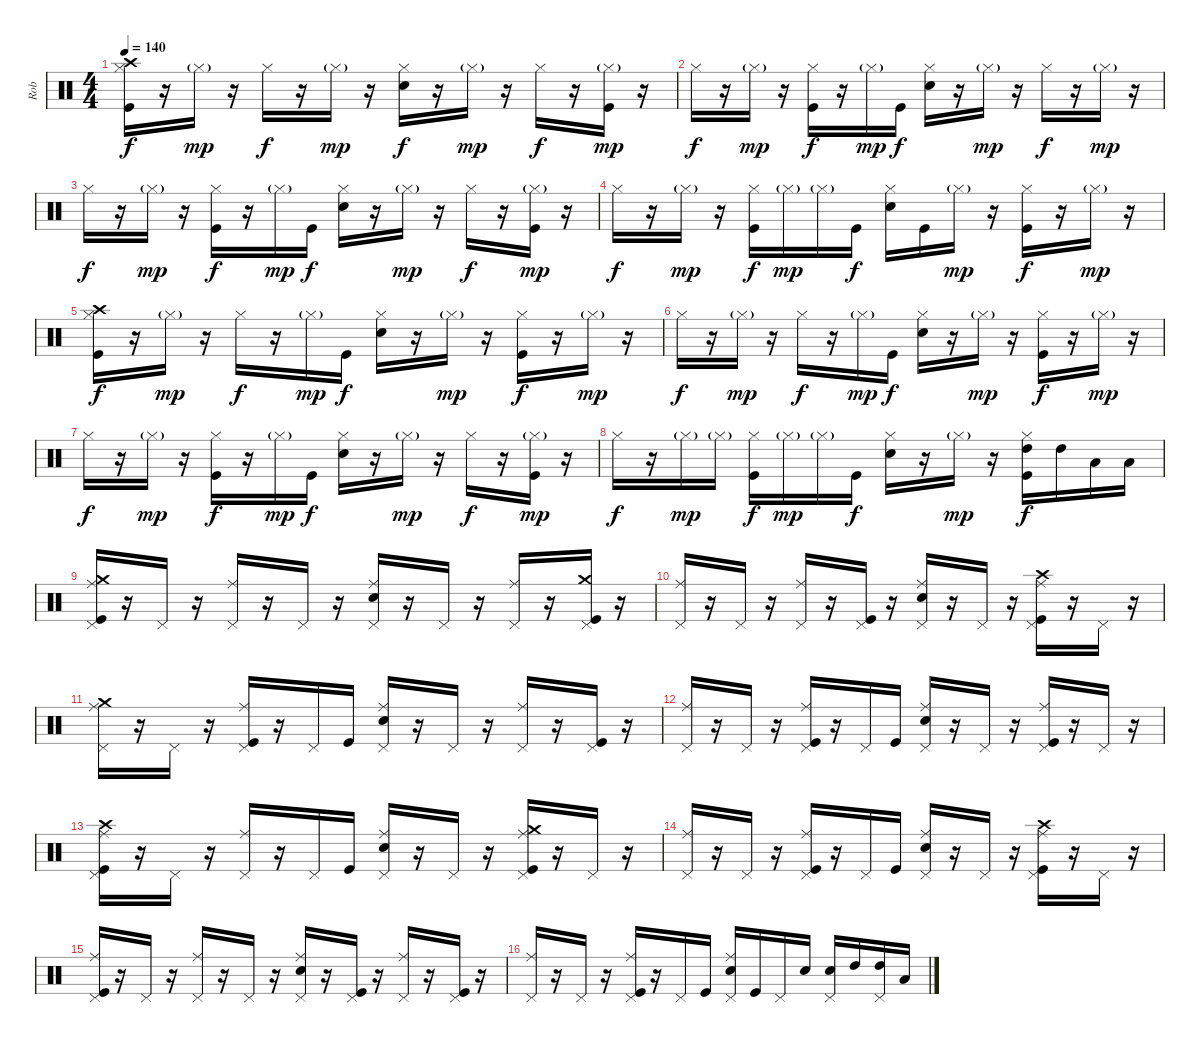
\track ("Rob" "Rob") {instrument percussion}
\staff {score}
\articulation defaults
\ts (4 4)
\tempo 140
\clef neutral
\ks c
("Crash high (hit)" "Hi-Hat (closed)" "Kick (hit)").16{dy f} r.16 "Hi-Hat (closed)"{g}.16{dy mp} r.16 "Hi-Hat (closed)".16{dy f} r.16 "Hi-Hat (closed)"{g}.16{dy mp} r.16 ("Electric Snare (hit)" "Hi-Hat (closed)").16{dy f} r.16 "Hi-Hat (closed)"{g}.16{dy mp} r.16 "Hi-Hat (closed)".16{dy f} r.16 ("Hi-Hat (closed)"{g} "Kick (hit)").16{dy mp} r.16 |
"Hi-Hat (closed)".16{dy f} r.16 "Hi-Hat (closed)"{g}.16{dy mp} r.16 ("Hi-Hat (closed)" "Kick (hit)").16{dy f} r.16 "Hi-Hat (closed)"{g}.16{dy mp} "Kick (hit)".16{dy f} ("Electric Snare (hit)" "Hi-Hat (closed)").16 r.16 "Hi-Hat (closed)"{g}.16{dy mp} r.16 "Hi-Hat (closed)".16{dy f} r.16 "Hi-Hat (closed)"{g}.16{dy mp} r.16 |
"Hi-Hat (closed)".16{dy f} r.16 "Hi-Hat (closed)"{g}.16{dy mp} r.16 ("Hi-Hat (closed)" "Kick (hit)").16{dy f} r.16 "Hi-Hat (closed)"{g}.16{dy mp} "Kick (hit)".16{dy f} ("Electric Snare (hit)" "Hi-Hat (closed)").16 r.16 "Hi-Hat (closed)"{g}.16{dy mp} r.16 "Hi-Hat (closed)".16{dy f} r.16 ("Hi-Hat (closed)"{g} "Kick (hit)").16{dy mp} r.16 |
"Hi-Hat (closed)".16{dy f} r.16 "Hi-Hat (closed)"{g}.16{dy mp} r.16 ("Hi-Hat (closed)" "Kick (hit)").16{dy f} "Hi-Hat (closed)"{g}.16{dy mp} "Hi-Hat (closed)"{g}.16 "Kick (hit)".16{dy f} ("Electric Snare (hit)" "Hi-Hat (closed)").16 "Kick (hit)".16 "Hi-Hat (closed)"{g}.16{dy mp} r.16 ("Hi-Hat (closed)" "Kick (hit)").16{dy f} r.16 "Hi-Hat (closed)"{g}.16{dy mp} r.16 |
("Crash high (hit)" "Hi-Hat (closed)" "Kick (hit)").16{dy f} r.16 "Hi-Hat (closed)"{g}.16{dy mp} r.16 "Hi-Hat (closed)".16{dy f} r.16 "Hi-Hat (closed)"{g}.16{dy mp} "Kick (hit)".16{dy f} ("Electric Snare (hit)" "Hi-Hat (closed)").16 r.16 "Hi-Hat (closed)"{g}.16{dy mp} r.16 ("Hi-Hat (closed)" "Kick (hit)").16{dy f} r.16 "Hi-Hat (closed)"{g}.16{dy mp} r.16 |
"Hi-Hat (closed)".16{dy f} r.16 "Hi-Hat (closed)"{g}.16{dy mp} r.16 "Hi-Hat (closed)".16{dy f} r.16 "Hi-Hat (closed)"{g}.16{dy mp} "Kick (hit)".16{dy f} ("Electric Snare (hit)" "Hi-Hat (closed)").16 r.16 "Hi-Hat (closed)"{g}.16{dy mp} r.16 ("Hi-Hat (closed)" "Kick (hit)").16{dy f} r.16 "Hi-Hat (closed)"{g}.16{dy mp} r.16 |
"Hi-Hat (closed)".16{dy f} r.16 "Hi-Hat (closed)"{g}.16{dy mp} r.16 ("Hi-Hat (closed)" "Kick (hit)").16{dy f} r.16 "Hi-Hat (closed)"{g}.16{dy mp} "Kick (hit)".16{dy f} ("Electric Snare (hit)" "Hi-Hat (closed)").16 r.16 "Hi-Hat (closed)"{g}.16{dy mp} r.16 "Hi-Hat (closed)".16{dy f} r.16 ("Hi-Hat (closed)"{g} "Kick (hit)").16{dy mp} r.16 |
"Hi-Hat (closed)".16{dy f} r.16 "Hi-Hat (closed)"{g}.16{dy mp} "Hi-Hat (closed)"{g}.16 ("Hi-Hat (closed)" "Kick (hit)").16{dy f} "Hi-Hat (closed)"{g}.16{dy mp} "Hi-Hat (closed)"{g}.16 "Kick (hit)".16{dy f} ("Electric Snare (hit)" "Hi-Hat (closed)").16 r.16 "Hi-Hat (closed)"{g}.16{dy mp} r.16 ("High Tom (hit)" "Hi-Hat (closed)" "Kick (hit)").16{dy f} "High Tom (hit)".16 "Low Tom (hit)".16 "Low Tom (hit)".16 |
("Crash medium (hit)" "Ride (middle)" "Pedal Hi-Hat (hit)" "Kick (hit)").16 r.16 "Pedal Hi-Hat (hit)".16 r.16 ("Ride (middle)" "Pedal Hi-Hat (hit)").16 r.16 "Pedal Hi-Hat (hit)".16 r.16 ("Electric Snare (hit)" "Ride (middle)" "Pedal Hi-Hat (hit)").16 r.16 "Pedal Hi-Hat (hit)".16 r.16 ("Ride (middle)" "Pedal Hi-Hat (hit)").16 r.16 ("Crash medium (hit)" "Pedal Hi-Hat (hit)" "Kick (hit)").16 r.16 |
("Ride (middle)" "Pedal Hi-Hat (hit)").16 r.16 "Pedal Hi-Hat (hit)".16 r.16 ("Ride (middle)" "Pedal Hi-Hat (hit)").16 r.16 ("Pedal Hi-Hat (hit)" "Kick (hit)").16 r.16 ("Electric Snare (hit)" "Ride (middle)" "Pedal Hi-Hat (hit)").16 r.16 "Pedal Hi-Hat (hit)".16 r.16 ("Crash high (hit)" "Ride (middle)" "Pedal Hi-Hat (hit)" "Kick (hit)").16 r.16 "Pedal Hi-Hat (hit)".16 r.16 |
("Crash medium (hit)" "Ride (middle)" "Pedal Hi-Hat (hit)").16 r.16 "Pedal Hi-Hat (hit)".16 r.16 ("Ride (middle)" "Pedal Hi-Hat (hit)" "Kick (hit)").16 r.16 "Pedal Hi-Hat (hit)".16 "Kick (hit)".16 ("Electric Snare (hit)" "Ride (middle)" "Pedal Hi-Hat (hit)").16 r.16 "Pedal Hi-Hat (hit)".16 r.16 ("Ride (middle)" "Pedal Hi-Hat (hit)").16 r.16 ("Pedal Hi-Hat (hit)" "Kick (hit)").16 r.16 |
("Ride (middle)" "Pedal Hi-Hat (hit)").16 r.16 "Pedal Hi-Hat (hit)".16 r.16 ("Ride (middle)" "Pedal Hi-Hat (hit)" "Kick (hit)").16 r.16 "Pedal Hi-Hat (hit)".16 "Kick (hit)".16 ("Electric Snare (hit)" "Ride (middle)" "Pedal Hi-Hat (hit)").16 r.16 "Pedal Hi-Hat (hit)".16 r.16 ("Ride (middle)" "Pedal Hi-Hat (hit)" "Kick (hit)").16 r.16 "Pedal Hi-Hat (hit)".16 r.16 |
("Crash high (hit)" "Ride (middle)" "Pedal Hi-Hat (hit)" "Kick (hit)").16 r.16 "Pedal Hi-Hat (hit)".16 r.16 ("Ride (middle)" "Pedal Hi-Hat (hit)").16 r.16 "Pedal Hi-Hat (hit)".16 "Kick (hit)".16 ("Electric Snare (hit)" "Ride (middle)" "Pedal Hi-Hat (hit)").16 r.16 "Pedal Hi-Hat (hit)".16 r.16 ("Crash medium (hit)" "Ride (middle)" "Pedal Hi-Hat (hit)" "Kick (hit)").16 r.16 "Pedal Hi-Hat (hit)".16 r.16 |
("Ride (middle)" "Pedal Hi-Hat (hit)").16 r.16 "Pedal Hi-Hat (hit)".16 r.16 ("Ride (middle)" "Pedal Hi-Hat (hit)" "Kick (hit)").16 r.16 "Pedal Hi-Hat (hit)".16 "Kick (hit)".16 ("Electric Snare (hit)" "Ride (middle)" "Pedal Hi-Hat (hit)").16 r.16 "Pedal Hi-Hat (hit)".16 r.16 ("Crash high (hit)" "Ride (middle)" "Pedal Hi-Hat (hit)" "Kick (hit)").16 r.16 "Pedal Hi-Hat (hit)".16 r.16 |
("Ride (middle)" "Pedal Hi-Hat (hit)" "Kick (hit)").16 r.16 "Pedal Hi-Hat (hit)".16 r.16 ("Ride (middle)" "Pedal Hi-Hat (hit)").16 r.16 "Pedal Hi-Hat (hit)".16 r.16 ("Electric Snare (hit)" "Ride (middle)" "Pedal Hi-Hat (hit)").16 r.16 ("Pedal Hi-Hat (hit)" "Kick (hit)").16 r.16 ("Ride (middle)" "Pedal Hi-Hat (hit)").16 r.16 ("Pedal Hi-Hat (hit)" "Kick (hit)").16 r.16 |
("Ride (middle)" "Pedal Hi-Hat (hit)").16 r.16 "Pedal Hi-Hat (hit)".16 r.16 ("Ride (middle)" "Pedal Hi-Hat (hit)" "Kick (hit)").16 r.16 "Pedal Hi-Hat (hit)".16 "Kick (hit)".16 ("Electric Snare (hit)" "Ride (middle)" "Pedal Hi-Hat (hit)").16 "Kick (hit)".16 "Pedal Hi-Hat (hit)".16 "Electric Snare (hit)".16 ("Electric Snare (hit)" "Pedal Hi-Hat (hit)").16 "High Tom (hit)".16 ("High Tom (hit)" "Pedal Hi-Hat (hit)").16 "Low Tom (hit)".16
